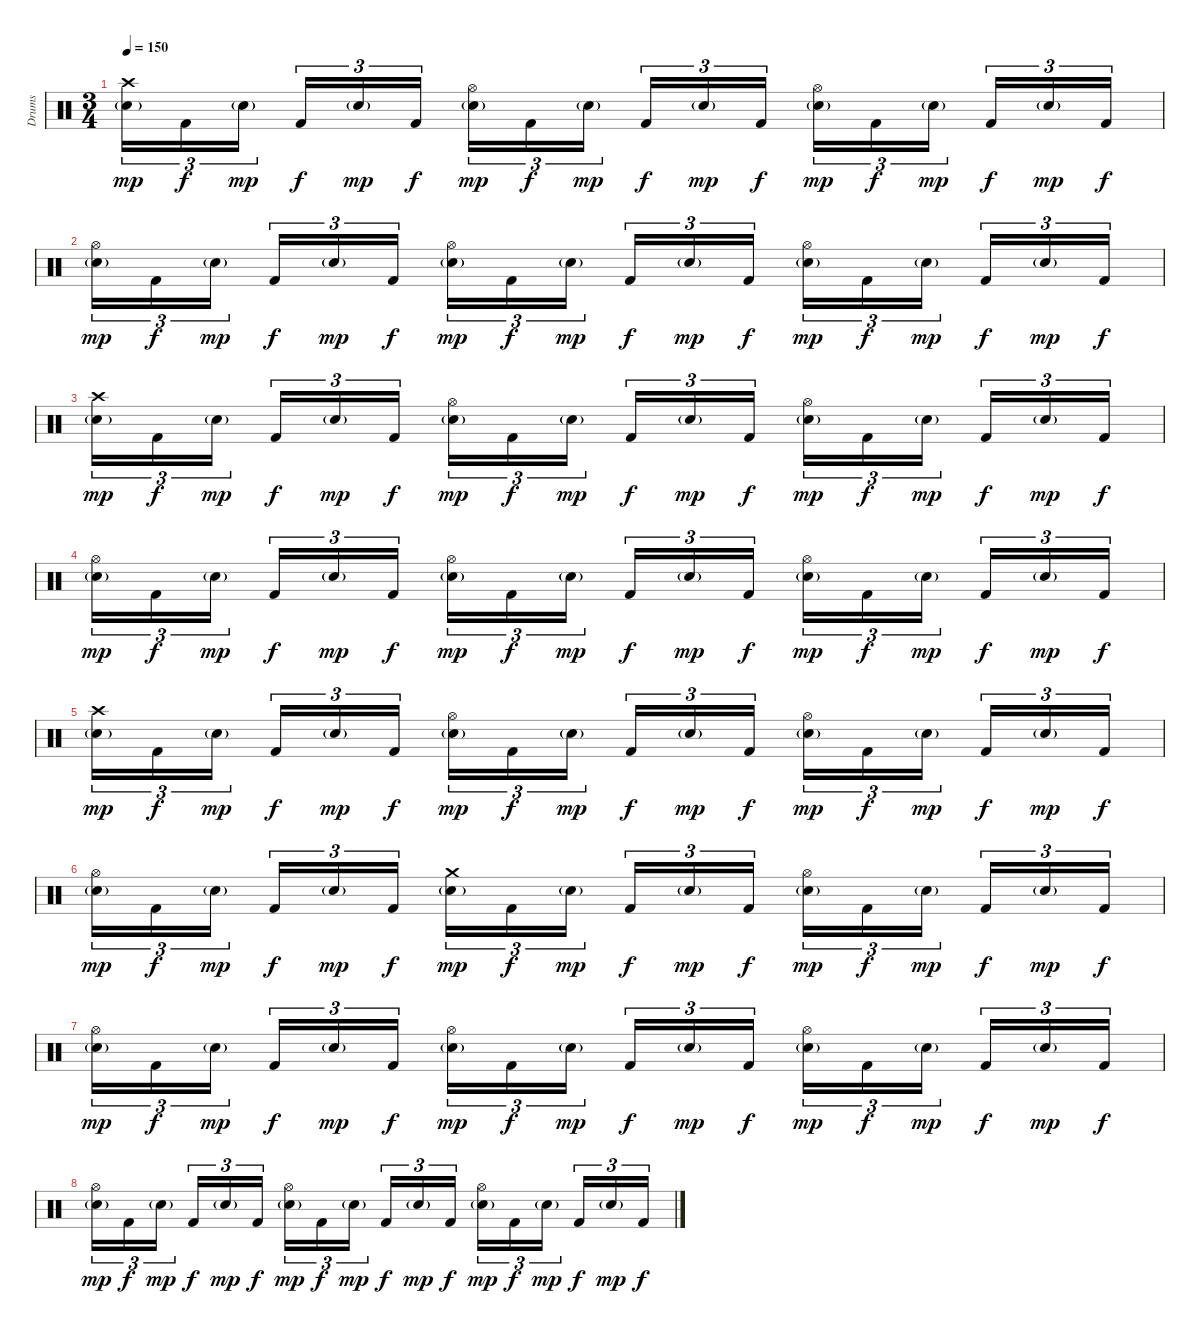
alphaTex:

\track ("Drums" "Drums") {instrument percussion}
\staff {score}
\articulation defaults
\ts (3 4)
\tempo 150
\clef neutral
\ks c
("Electric Snare (hit)"{g} "Crash high (hit)").16{tu (3 2) dy mp} "Kick (hit) 2".16{tu (3 2) dy f} "Electric Snare (hit)"{g}.16{tu (3 2) dy mp beam splitsecondary} "Kick (hit) 2".16{tu (3 2) dy f} "Electric Snare (hit)"{g}.16{tu (3 2) dy mp} "Kick (hit) 2".16{tu (3 2) dy f} ("Electric Snare (hit)"{g} "Hi-Hat (open)").16{tu (3 2) dy mp} "Kick (hit) 2".16{tu (3 2) dy f} "Electric Snare (hit)"{g}.16{tu (3 2) dy mp beam splitsecondary} "Kick (hit) 2".16{tu (3 2) dy f} "Electric Snare (hit)"{g}.16{tu (3 2) dy mp} "Kick (hit) 2".16{tu (3 2) dy f} ("Electric Snare (hit)"{g} "Hi-Hat (open)").16{tu (3 2) dy mp} "Kick (hit) 2".16{tu (3 2) dy f} "Electric Snare (hit)"{g}.16{tu (3 2) dy mp beam splitsecondary} "Kick (hit) 2".16{tu (3 2) dy f} "Electric Snare (hit)"{g}.16{tu (3 2) dy mp} "Kick (hit) 2".16{tu (3 2) dy f} |
("Electric Snare (hit)"{g} "Hi-Hat (open)").16{tu (3 2) dy mp} "Kick (hit) 2".16{tu (3 2) dy f} "Electric Snare (hit)"{g}.16{tu (3 2) dy mp beam splitsecondary} "Kick (hit) 2".16{tu (3 2) dy f} "Electric Snare (hit)"{g}.16{tu (3 2) dy mp} "Kick (hit) 2".16{tu (3 2) dy f} ("Electric Snare (hit)"{g} "Hi-Hat (open)").16{tu (3 2) dy mp} "Kick (hit) 2".16{tu (3 2) dy f} "Electric Snare (hit)"{g}.16{tu (3 2) dy mp beam splitsecondary} "Kick (hit) 2".16{tu (3 2) dy f} "Electric Snare (hit)"{g}.16{tu (3 2) dy mp} "Kick (hit) 2".16{tu (3 2) dy f} ("Electric Snare (hit)"{g} "Hi-Hat (open)").16{tu (3 2) dy mp} "Kick (hit) 2".16{tu (3 2) dy f} "Electric Snare (hit)"{g}.16{tu (3 2) dy mp beam splitsecondary} "Kick (hit) 2".16{tu (3 2) dy f} "Electric Snare (hit)"{g}.16{tu (3 2) dy mp} "Kick (hit) 2".16{tu (3 2) dy f} |
("Electric Snare (hit)"{g} "Crash high (hit)").16{tu (3 2) dy mp} "Kick (hit) 2".16{tu (3 2) dy f} "Electric Snare (hit)"{g}.16{tu (3 2) dy mp beam splitsecondary} "Kick (hit) 2".16{tu (3 2) dy f} "Electric Snare (hit)"{g}.16{tu (3 2) dy mp} "Kick (hit) 2".16{tu (3 2) dy f} ("Electric Snare (hit)"{g} "Hi-Hat (open)").16{tu (3 2) dy mp} "Kick (hit) 2".16{tu (3 2) dy f} "Electric Snare (hit)"{g}.16{tu (3 2) dy mp beam splitsecondary} "Kick (hit) 2".16{tu (3 2) dy f} "Electric Snare (hit)"{g}.16{tu (3 2) dy mp} "Kick (hit) 2".16{tu (3 2) dy f} ("Electric Snare (hit)"{g} "Hi-Hat (open)").16{tu (3 2) dy mp} "Kick (hit) 2".16{tu (3 2) dy f} "Electric Snare (hit)"{g}.16{tu (3 2) dy mp beam splitsecondary} "Kick (hit) 2".16{tu (3 2) dy f} "Electric Snare (hit)"{g}.16{tu (3 2) dy mp} "Kick (hit) 2".16{tu (3 2) dy f} |
("Electric Snare (hit)"{g} "Hi-Hat (open)").16{tu (3 2) dy mp} "Kick (hit) 2".16{tu (3 2) dy f} "Electric Snare (hit)"{g}.16{tu (3 2) dy mp beam splitsecondary} "Kick (hit) 2".16{tu (3 2) dy f} "Electric Snare (hit)"{g}.16{tu (3 2) dy mp} "Kick (hit) 2".16{tu (3 2) dy f} ("Electric Snare (hit)"{g} "Hi-Hat (open)").16{tu (3 2) dy mp} "Kick (hit) 2".16{tu (3 2) dy f} "Electric Snare (hit)"{g}.16{tu (3 2) dy mp beam splitsecondary} "Kick (hit) 2".16{tu (3 2) dy f} "Electric Snare (hit)"{g}.16{tu (3 2) dy mp} "Kick (hit) 2".16{tu (3 2) dy f} ("Electric Snare (hit)"{g} "Hi-Hat (open)").16{tu (3 2) dy mp} "Kick (hit) 2".16{tu (3 2) dy f} "Electric Snare (hit)"{g}.16{tu (3 2) dy mp beam splitsecondary} "Kick (hit) 2".16{tu (3 2) dy f} "Electric Snare (hit)"{g}.16{tu (3 2) dy mp} "Kick (hit) 2".16{tu (3 2) dy f} |
("Electric Snare (hit)"{g} "Crash high (hit)").16{tu (3 2) dy mp} "Kick (hit) 2".16{tu (3 2) dy f} "Electric Snare (hit)"{g}.16{tu (3 2) dy mp beam splitsecondary} "Kick (hit) 2".16{tu (3 2) dy f} "Electric Snare (hit)"{g}.16{tu (3 2) dy mp} "Kick (hit) 2".16{tu (3 2) dy f} ("Electric Snare (hit)"{g} "Hi-Hat (open)").16{tu (3 2) dy mp} "Kick (hit) 2".16{tu (3 2) dy f} "Electric Snare (hit)"{g}.16{tu (3 2) dy mp beam splitsecondary} "Kick (hit) 2".16{tu (3 2) dy f} "Electric Snare (hit)"{g}.16{tu (3 2) dy mp} "Kick (hit) 2".16{tu (3 2) dy f} ("Electric Snare (hit)"{g} "Hi-Hat (open)").16{tu (3 2) dy mp} "Kick (hit) 2".16{tu (3 2) dy f} "Electric Snare (hit)"{g}.16{tu (3 2) dy mp beam splitsecondary} "Kick (hit) 2".16{tu (3 2) dy f} "Electric Snare (hit)"{g}.16{tu (3 2) dy mp} "Kick (hit) 2".16{tu (3 2) dy f} |
("Electric Snare (hit)"{g} "Hi-Hat (open)").16{tu (3 2) dy mp} "Kick (hit) 2".16{tu (3 2) dy f} "Electric Snare (hit)"{g}.16{tu (3 2) dy mp beam splitsecondary} "Kick (hit) 2".16{tu (3 2) dy f} "Electric Snare (hit)"{g}.16{tu (3 2) dy mp} "Kick (hit) 2".16{tu (3 2) dy f} ("Electric Snare (hit)"{g} "Crash medium (hit)").16{tu (3 2) dy mp} "Kick (hit) 2".16{tu (3 2) dy f} "Electric Snare (hit)"{g}.16{tu (3 2) dy mp beam splitsecondary} "Kick (hit) 2".16{tu (3 2) dy f} "Electric Snare (hit)"{g}.16{tu (3 2) dy mp} "Kick (hit) 2".16{tu (3 2) dy f} ("Electric Snare (hit)"{g} "Hi-Hat (open)").16{tu (3 2) dy mp} "Kick (hit) 2".16{tu (3 2) dy f} "Electric Snare (hit)"{g}.16{tu (3 2) dy mp beam splitsecondary} "Kick (hit) 2".16{tu (3 2) dy f} "Electric Snare (hit)"{g}.16{tu (3 2) dy mp} "Kick (hit) 2".16{tu (3 2) dy f} |
("Electric Snare (hit)"{g} "Hi-Hat (open)").16{tu (3 2) dy mp} "Kick (hit) 2".16{tu (3 2) dy f} "Electric Snare (hit)"{g}.16{tu (3 2) dy mp beam splitsecondary} "Kick (hit) 2".16{tu (3 2) dy f} "Electric Snare (hit)"{g}.16{tu (3 2) dy mp} "Kick (hit) 2".16{tu (3 2) dy f} ("Electric Snare (hit)"{g} "Hi-Hat (open)").16{tu (3 2) dy mp} "Kick (hit) 2".16{tu (3 2) dy f} "Electric Snare (hit)"{g}.16{tu (3 2) dy mp beam splitsecondary} "Kick (hit) 2".16{tu (3 2) dy f} "Electric Snare (hit)"{g}.16{tu (3 2) dy mp} "Kick (hit) 2".16{tu (3 2) dy f} ("Electric Snare (hit)"{g} "Hi-Hat (open)").16{tu (3 2) dy mp} "Kick (hit) 2".16{tu (3 2) dy f} "Electric Snare (hit)"{g}.16{tu (3 2) dy mp beam splitsecondary} "Kick (hit) 2".16{tu (3 2) dy f} "Electric Snare (hit)"{g}.16{tu (3 2) dy mp} "Kick (hit) 2".16{tu (3 2) dy f} |
("Electric Snare (hit)"{g} "Hi-Hat (open)").16{tu (3 2) dy mp} "Kick (hit) 2".16{tu (3 2) dy f} "Electric Snare (hit)"{g}.16{tu (3 2) dy mp beam splitsecondary} "Kick (hit) 2".16{tu (3 2) dy f} "Electric Snare (hit)"{g}.16{tu (3 2) dy mp} "Kick (hit) 2".16{tu (3 2) dy f} ("Electric Snare (hit)"{g} "Hi-Hat (open)").16{tu (3 2) dy mp} "Kick (hit) 2".16{tu (3 2) dy f} "Electric Snare (hit)"{g}.16{tu (3 2) dy mp beam splitsecondary} "Kick (hit) 2".16{tu (3 2) dy f} "Electric Snare (hit)"{g}.16{tu (3 2) dy mp} "Kick (hit) 2".16{tu (3 2) dy f} ("Electric Snare (hit)"{g} "Hi-Hat (open)").16{tu (3 2) dy mp} "Kick (hit) 2".16{tu (3 2) dy f} "Electric Snare (hit)"{g}.16{tu (3 2) dy mp beam splitsecondary} "Kick (hit) 2".16{tu (3 2) dy f} "Electric Snare (hit)"{g}.16{tu (3 2) dy mp} "Kick (hit) 2".16{tu (3 2) dy f}
